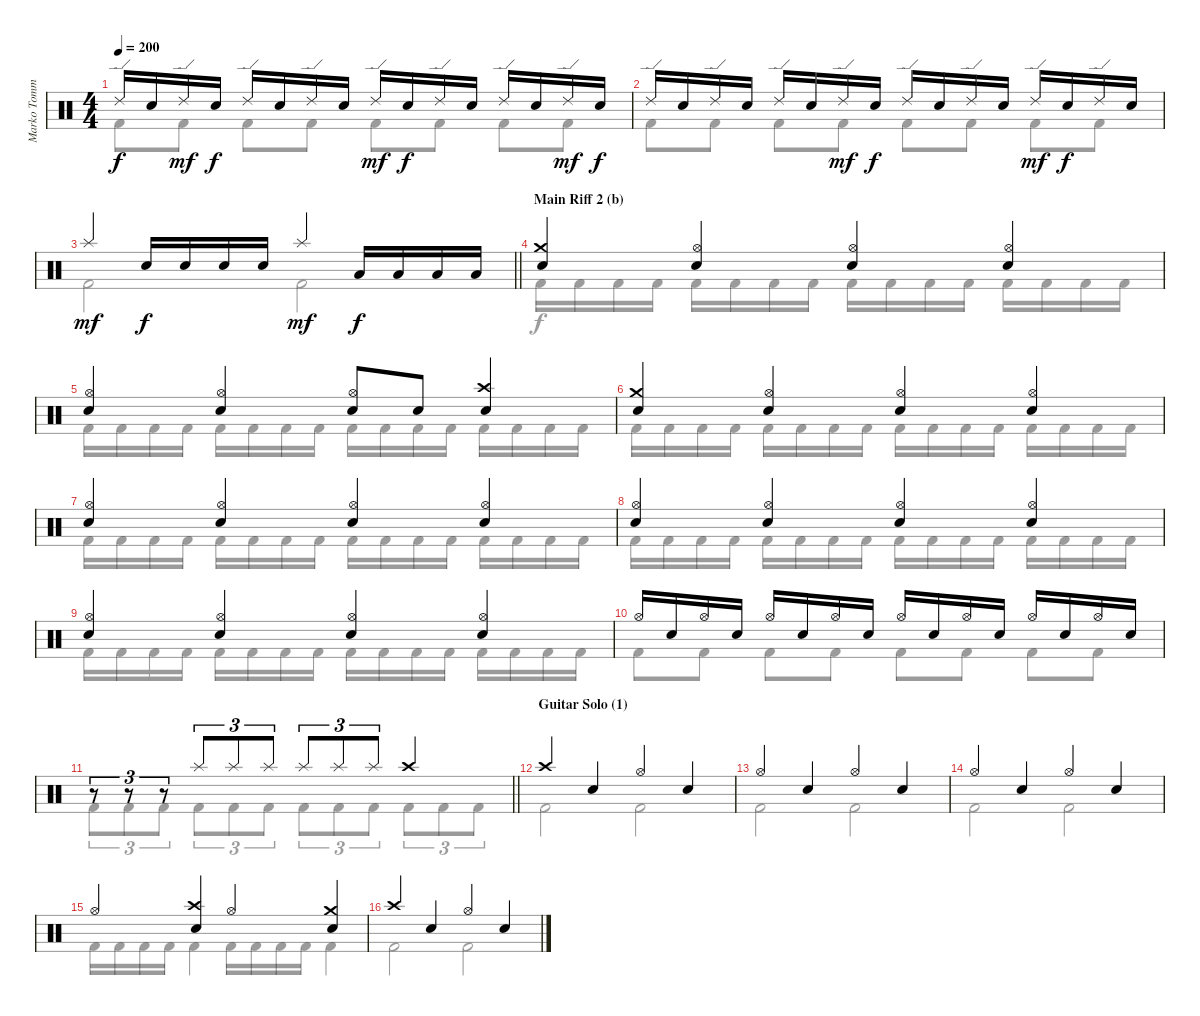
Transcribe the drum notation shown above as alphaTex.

\track ("Marko Tommila (drums)" "Marko Tomm") {instrument percussion}
\staff {score}
\articulation defaults
\voice
\ts (4 4)
\tempo 200
\clef neutral
\ks c "Ride (edge) 2".16{dy f} "Electric Snare (hit)".16 "Ride (edge) 2".16{dy mf} "Electric Snare (hit)".16{dy f} "Ride (edge) 2".16 "Electric Snare (hit)".16 "Ride (edge) 2".16 "Electric Snare (hit)".16 "Ride (edge) 2".16{dy mf} "Electric Snare (hit)".16{dy f} "Ride (edge) 2".16 "Electric Snare (hit)".16 "Ride (edge) 2".16 "Electric Snare (hit)".16 "Ride (edge) 2".16{dy mf} "Electric Snare (hit)".16{dy f}
|
"Ride (edge) 2".16 "Electric Snare (hit)".16 "Ride (edge) 2".16 "Electric Snare (hit)".16 "Ride (edge) 2".16 "Electric Snare (hit)".16 "Ride (edge) 2".16{dy mf} "Electric Snare (hit)".16{dy f} "Ride (edge) 2".16 "Electric Snare (hit)".16 "Ride (edge) 2".16 "Electric Snare (hit)".16 "Ride (edge) 2".16{dy mf} "Electric Snare (hit)".16{dy f} "Ride (edge) 2".16 "Electric Snare (hit)".16 |
\barLineRight lightlight "Splash (hit)".4{dy mf} "Electric Snare (hit)".16{dy f} "Electric Snare (hit)".16 "Electric Snare (hit)".16 "Electric Snare (hit)".16 "Splash (hit)".4{dy mf} "Low Tom (hit)".16{dy f} "Low Tom (hit)".16 "Low Tom (hit)".16 "Low Tom (hit)".16
|
\section ("" "Main Riff 2 (b)")
("Crash medium (hit)" "Electric Snare (hit)").4 ("Hi-Hat (open)" "Electric Snare (hit)").4 ("Hi-Hat (open)" "Electric Snare (hit)").4 ("Hi-Hat (open)" "Electric Snare (hit)").4 |
("Hi-Hat (open)" "Electric Snare (hit)").4 ("Hi-Hat (open)" "Electric Snare (hit)").4 ("Hi-Hat (open)" "Electric Snare (hit)").8 "Electric Snare (hit)".8 ("Crash high (hit)" "Electric Snare (hit)").4 |
("Crash medium (hit)" "Electric Snare (hit)").4 ("Hi-Hat (open)" "Electric Snare (hit)").4 ("Hi-Hat (open)" "Electric Snare (hit)").4 ("Hi-Hat (open)" "Electric Snare (hit)").4 |
("Hi-Hat (open)" "Electric Snare (hit)").4 ("Hi-Hat (open)" "Electric Snare (hit)").4 ("Hi-Hat (open)" "Electric Snare (hit)").4 ("Hi-Hat (open)" "Electric Snare (hit)").4 |
("Hi-Hat (open)" "Electric Snare (hit)").4 ("Hi-Hat (open)" "Electric Snare (hit)").4 ("Hi-Hat (open)" "Electric Snare (hit)").4 ("Hi-Hat (open)" "Electric Snare (hit)").4 |
("Hi-Hat (open)" "Electric Snare (hit)").4 ("Hi-Hat (open)" "Electric Snare (hit)").4 ("Hi-Hat (open)" "Electric Snare (hit)").4 ("Hi-Hat (open)" "Electric Snare (hit)").4 |
"Hi-Hat (open)".16 "Electric Snare (hit)".16 "Hi-Hat (open)".16 "Electric Snare (hit)".16 "Hi-Hat (open)".16 "Electric Snare (hit)".16 "Hi-Hat (open)".16 "Electric Snare (hit)".16 "Hi-Hat (open)".16 "Electric Snare (hit)".16 "Hi-Hat (open)".16 "Electric Snare (hit)".16 "Hi-Hat (open)".16 "Electric Snare (hit)".16 "Hi-Hat (open)".16 "Electric Snare (hit)".16 |
\barLineRight lightlight
r.8{tu (3 2)} r.8{tu (3 2)} r.8{tu (3 2)} "Splash (hit)".8{tu (3 2)} "Splash (hit)".8{tu (3 2)} "Splash (hit)".8{tu (3 2)} "Splash (hit)".8{tu (3 2)} "Splash (hit)".8{tu (3 2)} "Splash (hit)".8{tu (3 2)} "Crash high (hit)".4 |
\section ("" "Guitar Solo (1)")
\ks aminor "Crash high (hit)".4 "Electric Snare (hit)".4 "Hi-Hat (open)".4 "Electric Snare (hit)".4
|
"Hi-Hat (open)".4 "Electric Snare (hit)".4 "Hi-Hat (open)".4 "Electric Snare (hit)".4 |
"Hi-Hat (open)".4 "Electric Snare (hit)".4 "Hi-Hat (open)".4 "Electric Snare (hit)".4 |
"Hi-Hat (open)".4 ("Crash high (hit)" "Electric Snare (hit)").4 "Hi-Hat (open)".4 ("Crash medium (hit)" "Electric Snare (hit)").4 |
"Crash high (hit)".4 "Electric Snare (hit)".4 "Hi-Hat (open)".4 "Electric Snare (hit)".4
\voice
\clef neutral
\ottava regular
\simile none
\ks c "Kick (hit) 2".8{dy f} "Kick (hit) 2".8 "Kick (hit) 2".8 "Kick (hit) 2".8 "Kick (hit) 2".8 "Kick (hit) 2".8 "Kick (hit) 2".8 "Kick (hit) 2".8
|
"Kick (hit) 2".8 "Kick (hit) 2".8 "Kick (hit) 2".8 "Kick (hit) 2".8 "Kick (hit) 2".8 "Kick (hit) 2".8 "Kick (hit) 2".8 "Kick (hit) 2".8 |
\barLineRight lightlight "Kick (hit) 2".2{dy mf} "Kick (hit) 2".2
|
"Kick (hit) 2".16{dy f} "Kick (hit) 2".16 "Kick (hit) 2".16 "Kick (hit) 2".16 "Kick (hit) 2".16 "Kick (hit) 2".16 "Kick (hit) 2".16 "Kick (hit) 2".16 "Kick (hit) 2".16 "Kick (hit) 2".16 "Kick (hit) 2".16 "Kick (hit) 2".16 "Kick (hit) 2".16 "Kick (hit) 2".16 "Kick (hit) 2".16 "Kick (hit) 2".16 |
"Kick (hit) 2".16 "Kick (hit) 2".16 "Kick (hit) 2".16 "Kick (hit) 2".16 "Kick (hit) 2".16 "Kick (hit) 2".16 "Kick (hit) 2".16 "Kick (hit) 2".16 "Kick (hit) 2".16 "Kick (hit) 2".16 "Kick (hit) 2".16 "Kick (hit) 2".16 "Kick (hit) 2".16 "Kick (hit) 2".16 "Kick (hit) 2".16 "Kick (hit) 2".16 |
"Kick (hit) 2".16 "Kick (hit) 2".16 "Kick (hit) 2".16 "Kick (hit) 2".16 "Kick (hit) 2".16 "Kick (hit) 2".16 "Kick (hit) 2".16 "Kick (hit) 2".16 "Kick (hit) 2".16 "Kick (hit) 2".16 "Kick (hit) 2".16 "Kick (hit) 2".16 "Kick (hit) 2".16 "Kick (hit) 2".16 "Kick (hit) 2".16 "Kick (hit) 2".16 |
"Kick (hit) 2".16 "Kick (hit) 2".16 "Kick (hit) 2".16 "Kick (hit) 2".16 "Kick (hit) 2".16 "Kick (hit) 2".16 "Kick (hit) 2".16 "Kick (hit) 2".16 "Kick (hit) 2".16 "Kick (hit) 2".16 "Kick (hit) 2".16 "Kick (hit) 2".16 "Kick (hit) 2".16 "Kick (hit) 2".16 "Kick (hit) 2".16 "Kick (hit) 2".16 |
"Kick (hit) 2".16 "Kick (hit) 2".16 "Kick (hit) 2".16 "Kick (hit) 2".16 "Kick (hit) 2".16 "Kick (hit) 2".16 "Kick (hit) 2".16 "Kick (hit) 2".16 "Kick (hit) 2".16 "Kick (hit) 2".16 "Kick (hit) 2".16 "Kick (hit) 2".16 "Kick (hit) 2".16 "Kick (hit) 2".16 "Kick (hit) 2".16 "Kick (hit) 2".16 |
"Kick (hit) 2".16 "Kick (hit) 2".16 "Kick (hit) 2".16 "Kick (hit) 2".16 "Kick (hit) 2".16 "Kick (hit) 2".16 "Kick (hit) 2".16 "Kick (hit) 2".16 "Kick (hit) 2".16 "Kick (hit) 2".16 "Kick (hit) 2".16 "Kick (hit) 2".16 "Kick (hit) 2".16 "Kick (hit) 2".16 "Kick (hit) 2".16 "Kick (hit) 2".16 |
"Kick (hit) 2".8 "Kick (hit) 2".8 "Kick (hit) 2".8 "Kick (hit) 2".8 "Kick (hit) 2".8 "Kick (hit) 2".8 "Kick (hit) 2".8 "Kick (hit) 2".8 |
\barLineRight lightlight "Kick (hit) 2".8{tu (3 2)} "Kick (hit) 2".8{tu (3 2)} "Kick (hit) 2".8{tu (3 2)} "Kick (hit) 2".8{tu (3 2)} "Kick (hit) 2".8{tu (3 2)} "Kick (hit) 2".8{tu (3 2)} "Kick (hit) 2".8{tu (3 2)} "Kick (hit) 2".8{tu (3 2)} "Kick (hit) 2".8{tu (3 2)} "Kick (hit) 2".8{tu (3 2)} "Kick (hit) 2".8{tu (3 2)} "Kick (hit) 2".8{tu (3 2)}
|
\ks aminor "Kick (hit) 2".2 "Kick (hit) 2".2
|
"Kick (hit) 2".2 "Kick (hit) 2".2 |
"Kick (hit) 2".2 "Kick (hit) 2".2 |
"Kick (hit) 2".16 "Kick (hit) 2".16 "Kick (hit) 2".16 "Kick (hit) 2".16 "Kick (hit) 2".4 "Kick (hit) 2".16 "Kick (hit) 2".16 "Kick (hit) 2".16 "Kick (hit) 2".16 "Kick (hit) 2".4 |
"Kick (hit) 2".2 "Kick (hit) 2".2
